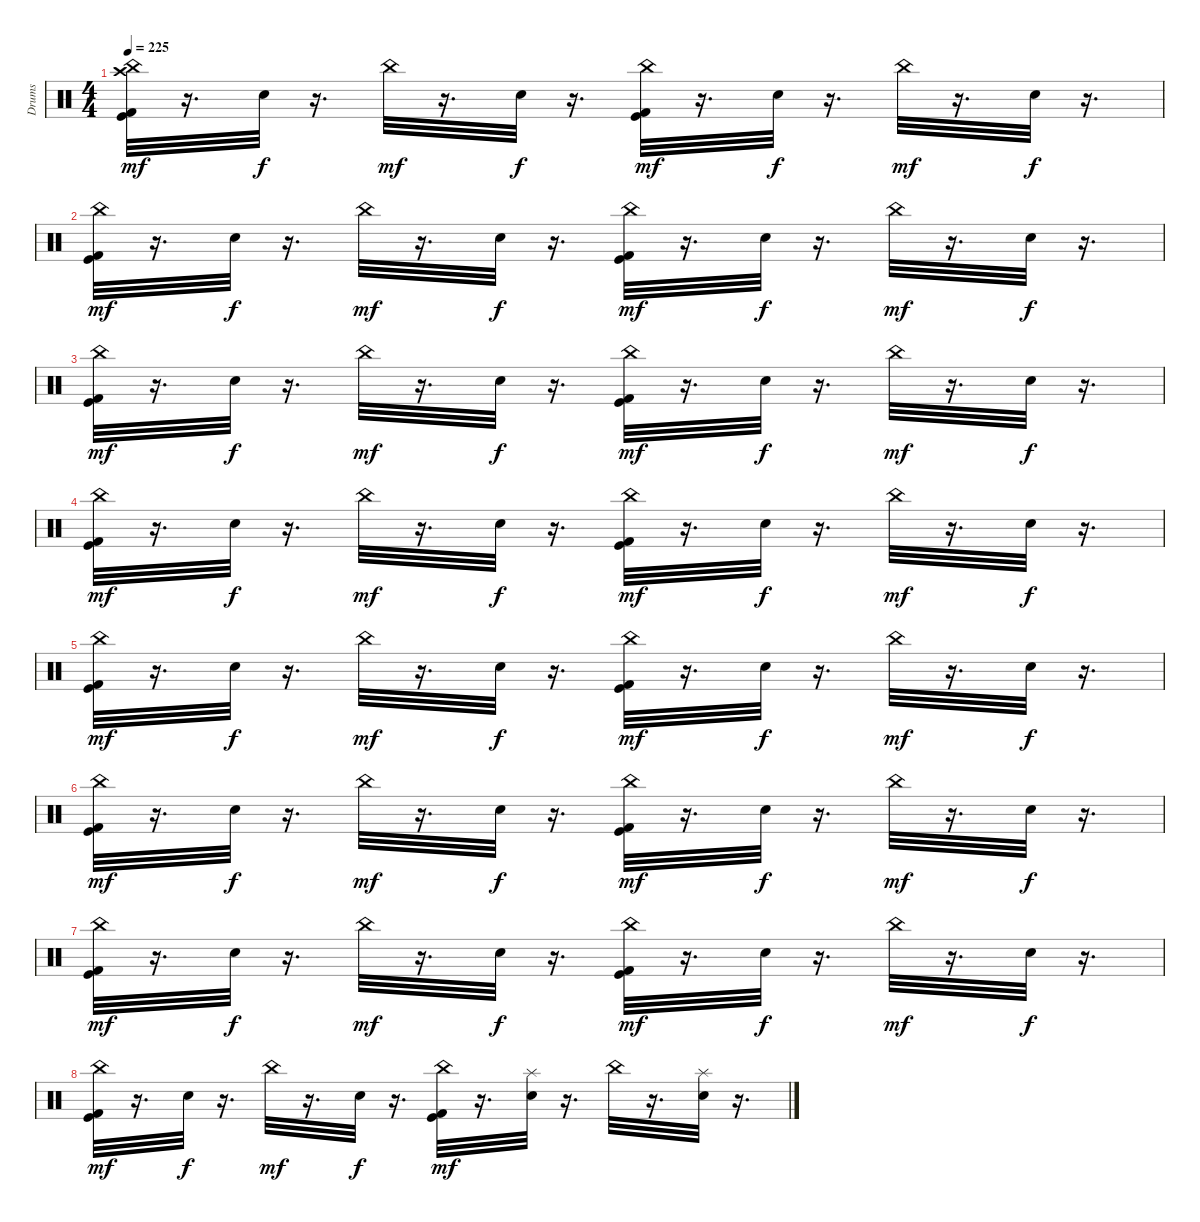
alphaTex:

\track ("Drums" "Drums") {instrument percussion}
\staff {score}
\articulation defaults
\ts (4 4)
\tempo 225
\clef neutral
\ks c
("Kick (hit) 2" "Kick (hit)" "Crash high (hit)" "China (hit)").32{dy mf} r.16{d} "Snare (hit) 2".32{dy f} r.16{d} "China (hit)".32{dy mf} r.16{d} "Snare (hit) 2".32{dy f} r.16{d} ("Kick (hit) 2" "Kick (hit)" "China (hit)").32{dy mf} r.16{d} "Snare (hit) 2".32{dy f} r.16{d} "China (hit)".32{dy mf} r.16{d} "Snare (hit) 2".32{dy f} r.16{d} |
("Kick (hit) 2" "Kick (hit)" "China (hit)").32{dy mf} r.16{d} "Snare (hit) 2".32{dy f} r.16{d} "China (hit)".32{dy mf} r.16{d} "Snare (hit) 2".32{dy f} r.16{d} ("Kick (hit) 2" "Kick (hit)" "China (hit)").32{dy mf} r.16{d} "Snare (hit) 2".32{dy f} r.16{d} "China (hit)".32{dy mf} r.16{d} "Snare (hit) 2".32{dy f} r.16{d} |
("Kick (hit) 2" "Kick (hit)" "China (hit)").32{dy mf} r.16{d} "Snare (hit) 2".32{dy f} r.16{d} "China (hit)".32{dy mf} r.16{d} "Snare (hit) 2".32{dy f} r.16{d} ("Kick (hit) 2" "Kick (hit)" "China (hit)").32{dy mf} r.16{d} "Snare (hit) 2".32{dy f} r.16{d} "China (hit)".32{dy mf} r.16{d} "Snare (hit) 2".32{dy f} r.16{d} |
("Kick (hit) 2" "Kick (hit)" "China (hit)").32{dy mf} r.16{d} "Snare (hit) 2".32{dy f} r.16{d} "China (hit)".32{dy mf} r.16{d} "Snare (hit) 2".32{dy f} r.16{d} ("Kick (hit) 2" "Kick (hit)" "China (hit)").32{dy mf} r.16{d} "Snare (hit) 2".32{dy f} r.16{d} "China (hit)".32{dy mf} r.16{d} "Snare (hit) 2".32{dy f} r.16{d} |
("Kick (hit) 2" "Kick (hit)" "China (hit)").32{dy mf} r.16{d} "Snare (hit) 2".32{dy f} r.16{d} "China (hit)".32{dy mf} r.16{d} "Snare (hit) 2".32{dy f} r.16{d} ("Kick (hit) 2" "Kick (hit)" "China (hit)").32{dy mf} r.16{d} "Snare (hit) 2".32{dy f} r.16{d} "China (hit)".32{dy mf} r.16{d} "Snare (hit) 2".32{dy f} r.16{d} |
("Kick (hit) 2" "Kick (hit)" "China (hit)").32{dy mf} r.16{d} "Snare (hit) 2".32{dy f} r.16{d} "China (hit)".32{dy mf} r.16{d} "Snare (hit) 2".32{dy f} r.16{d} ("Kick (hit) 2" "Kick (hit)" "China (hit)").32{dy mf} r.16{d} "Snare (hit) 2".32{dy f} r.16{d} "China (hit)".32{dy mf} r.16{d} "Snare (hit) 2".32{dy f} r.16{d} |
("Kick (hit) 2" "Kick (hit)" "China (hit)").32{dy mf} r.16{d} "Snare (hit) 2".32{dy f} r.16{d} "China (hit)".32{dy mf} r.16{d} "Snare (hit) 2".32{dy f} r.16{d} ("Kick (hit) 2" "Kick (hit)" "China (hit)").32{dy mf} r.16{d} "Snare (hit) 2".32{dy f} r.16{d} "China (hit)".32{dy mf} r.16{d} "Snare (hit) 2".32{dy f} r.16{d} |
("Kick (hit) 2" "Kick (hit)" "China (hit)").32{dy mf} r.16{d} "Snare (hit) 2".32{dy f} r.16{d} "China (hit)".32{dy mf} r.16{d} "Snare (hit) 2".32{dy f} r.16{d} ("Kick (hit) 2" "Kick (hit)" "China (hit)").32{dy mf} r.16{d} ("Snare (hit) 2" "Splash (hit)").32 r.16{d} "China (hit)".32 r.16{d} ("Snare (hit) 2" "Splash (hit)").32 r.16{d}
